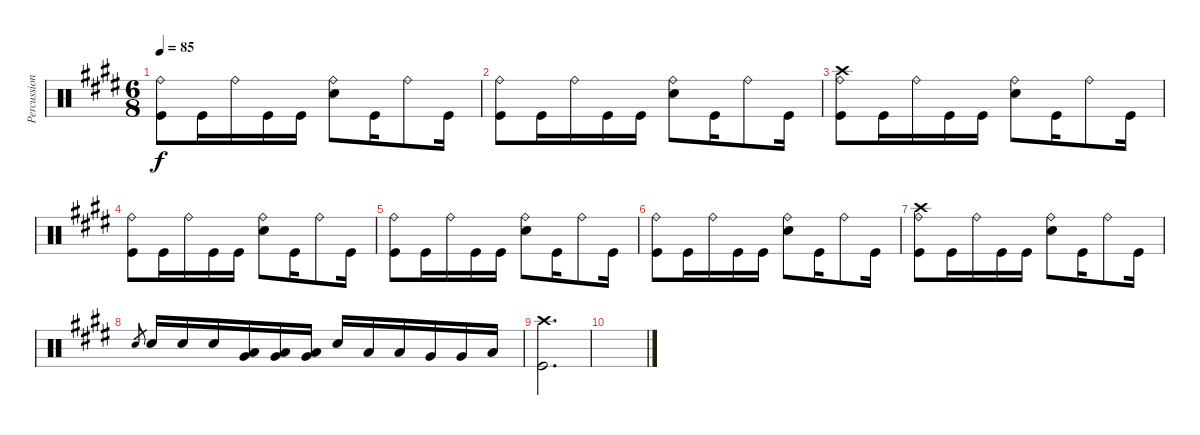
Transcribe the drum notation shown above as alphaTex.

\track ("Percussion" "Percussion") {instrument percussion}
\staff {score}
\articulation defaults
\ts (6 8)
\tempo 85
\clef neutral
\ks c#minor
("Kick (hit)" "Ride (bell)").8{dy f} "Kick (hit)".16 "Ride (bell)".16 "Kick (hit)".16 "Kick (hit)".16 ("Ride (bell)" "Snare (hit) 2").8 "Kick (hit)".16 "Ride (bell)".8 "Kick (hit)".16 |
\ks e
("Kick (hit)" "Ride (bell)").8 "Kick (hit)".16 "Ride (bell)".16 "Kick (hit)".16 "Kick (hit)".16 ("Ride (bell)" "Snare (hit) 2").8 "Kick (hit)".16 "Ride (bell)".8 "Kick (hit)".16 |
("Kick (hit)" "Ride (bell)" "Crash high (hit)").8 "Kick (hit)".16 "Ride (bell)".16 "Kick (hit)".16 "Kick (hit)".16 ("Ride (bell)" "Snare (hit) 2").8 "Kick (hit)".16 "Ride (bell)".8 "Kick (hit)".16 |
\ks c#minor
("Kick (hit)" "Ride (bell)").8 "Kick (hit)".16 "Ride (bell)".16 "Kick (hit)".16 "Kick (hit)".16 ("Ride (bell)" "Snare (hit) 2").8 "Kick (hit)".16 "Ride (bell)".8 "Kick (hit)".16 |
("Kick (hit)" "Ride (bell)").8 "Kick (hit)".16 "Ride (bell)".16 "Kick (hit)".16 "Kick (hit)".16 ("Ride (bell)" "Snare (hit) 2").8 "Kick (hit)".16 "Ride (bell)".8 "Kick (hit)".16 |
\ks e
("Kick (hit)" "Ride (bell)").8 "Kick (hit)".16 "Ride (bell)".16 "Kick (hit)".16 "Kick (hit)".16 ("Ride (bell)" "Snare (hit) 2").8 "Kick (hit)".16 "Ride (bell)".8 "Kick (hit)".16 |
\ks c#minor
("Kick (hit)" "Ride (bell)" "Crash high (hit)").8 "Kick (hit)".16 "Ride (bell)".16 "Kick (hit)".16 "Kick (hit)".16 ("Ride (bell)" "Snare (hit) 2").8 "Kick (hit)".16 "Ride (bell)".8 "Kick (hit)".16 |
"Snare (hit) 2".8{gr} "Snare (hit) 2".16 "Snare (hit) 2".16 "Snare (hit) 2".16 ("Very Low Tom (hit)" "Low Tom (hit)").16 ("Low Tom (hit)" "Very Low Tom (hit)").16 ("Very Low Tom (hit)" "Low Floor Tom (hit)").16 "Snare (hit) 2".16 "Low Tom (hit)".16 "Low Tom (hit)".16 "Very Low Tom (hit)".16 "Very Low Tom (hit)".16 "Low Floor Tom (hit)".16 |
\ks e
("Kick (hit)" "Crash high (hit)").2{d} |
\ks c#minor
